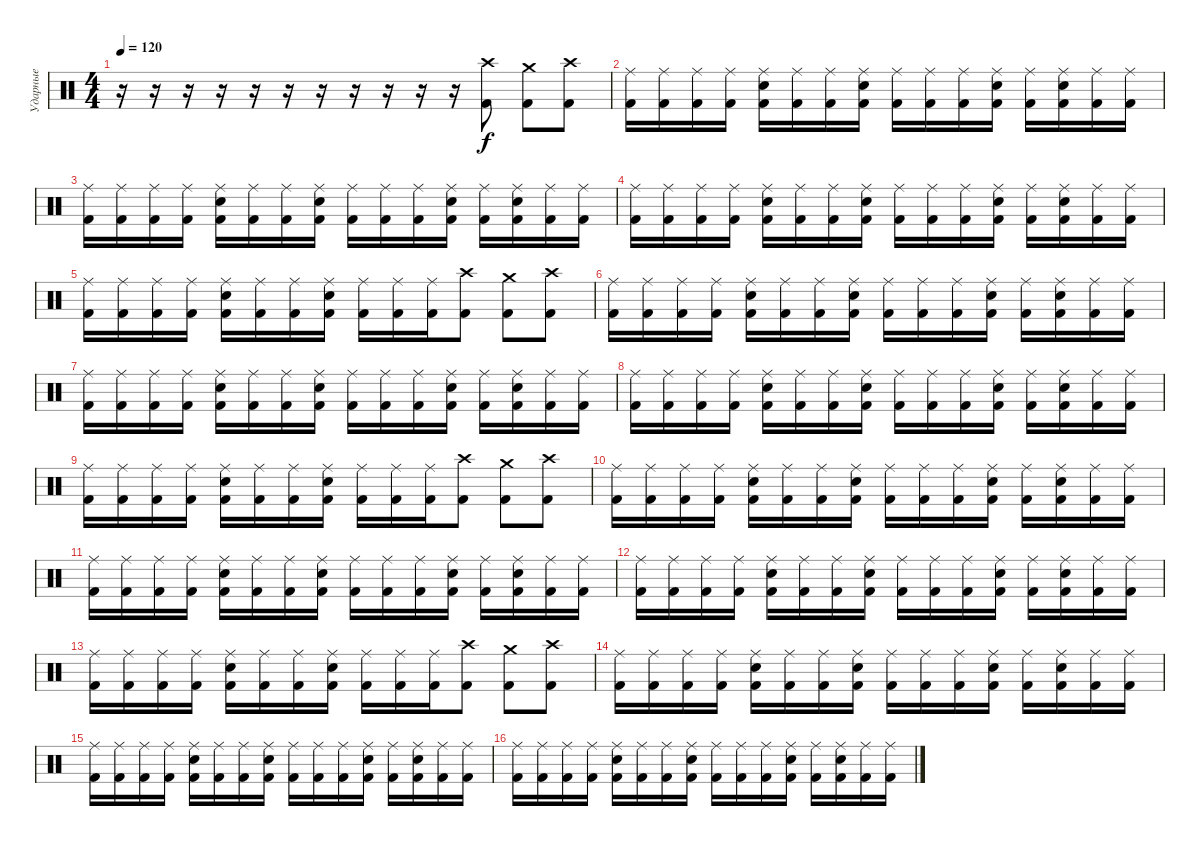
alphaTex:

\track ("Ударные" "Ударные") {instrument percussion}
\staff {score}
\articulation defaults
\ts (4 4)
\tempo 120
\clef neutral
\ks c
r.16{dy f} r.16 r.16 r.16 r.16 r.16 r.16 r.16 r.16 r.16 r.16 ("Kick (hit) 2" "Crash high (hit)").8 ("Kick (hit) 2" "Crash medium (hit)").8 ("Kick (hit) 2" "Crash high (hit)").8 |
("Kick (hit) 2" "Ride (middle)").16 ("Kick (hit) 2" "Ride (middle)").16 ("Kick (hit) 2" "Ride (middle)").16 ("Kick (hit) 2" "Ride (middle)").16 ("Kick (hit) 2" "Electric Snare (hit)" "Ride (middle)").16 ("Kick (hit) 2" "Ride (middle)").16 ("Kick (hit) 2" "Ride (middle)").16 ("Kick (hit) 2" "Electric Snare (hit)" "Ride (middle)").16 ("Kick (hit) 2" "Ride (middle)").16 ("Kick (hit) 2" "Ride (middle)").16 ("Kick (hit) 2" "Ride (middle)").16 ("Kick (hit) 2" "Electric Snare (hit)" "Ride (middle)").16 ("Kick (hit) 2" "Ride (middle)").16 ("Kick (hit) 2" "Electric Snare (hit)" "Ride (middle)").16 ("Kick (hit) 2" "Ride (middle)").16 ("Kick (hit) 2" "Ride (middle)").16 |
("Kick (hit) 2" "Ride (middle)").16 ("Kick (hit) 2" "Ride (middle)").16 ("Kick (hit) 2" "Ride (middle)").16 ("Kick (hit) 2" "Ride (middle)").16 ("Kick (hit) 2" "Electric Snare (hit)" "Ride (middle)").16 ("Kick (hit) 2" "Ride (middle)").16 ("Kick (hit) 2" "Ride (middle)").16 ("Kick (hit) 2" "Electric Snare (hit)" "Ride (middle)").16 ("Kick (hit) 2" "Ride (middle)").16 ("Kick (hit) 2" "Ride (middle)").16 ("Kick (hit) 2" "Ride (middle)").16 ("Kick (hit) 2" "Electric Snare (hit)" "Ride (middle)").16 ("Kick (hit) 2" "Ride (middle)").16 ("Kick (hit) 2" "Electric Snare (hit)" "Ride (middle)").16 ("Kick (hit) 2" "Ride (middle)").16 ("Kick (hit) 2" "Ride (middle)").16 |
("Kick (hit) 2" "Ride (middle)").16 ("Kick (hit) 2" "Ride (middle)").16 ("Kick (hit) 2" "Ride (middle)").16 ("Kick (hit) 2" "Ride (middle)").16 ("Kick (hit) 2" "Electric Snare (hit)" "Ride (middle)").16 ("Kick (hit) 2" "Ride (middle)").16 ("Kick (hit) 2" "Ride (middle)").16 ("Kick (hit) 2" "Electric Snare (hit)" "Ride (middle)").16 ("Kick (hit) 2" "Ride (middle)").16 ("Kick (hit) 2" "Ride (middle)").16 ("Kick (hit) 2" "Ride (middle)").16 ("Kick (hit) 2" "Electric Snare (hit)" "Ride (middle)").16 ("Kick (hit) 2" "Ride (middle)").16 ("Kick (hit) 2" "Electric Snare (hit)" "Ride (middle)").16 ("Kick (hit) 2" "Ride (middle)").16 ("Kick (hit) 2" "Ride (middle)").16 |
("Kick (hit) 2" "Ride (middle)").16 ("Kick (hit) 2" "Ride (middle)").16 ("Kick (hit) 2" "Ride (middle)").16 ("Kick (hit) 2" "Ride (middle)").16 ("Kick (hit) 2" "Electric Snare (hit)" "Ride (middle)").16 ("Kick (hit) 2" "Ride (middle)").16 ("Kick (hit) 2" "Ride (middle)").16 ("Kick (hit) 2" "Electric Snare (hit)" "Ride (middle)").16 ("Kick (hit) 2" "Ride (middle)").16 ("Kick (hit) 2" "Ride (middle)").16 ("Kick (hit) 2" "Ride (middle)").16 ("Kick (hit) 2" "Crash high (hit)").8 ("Kick (hit) 2" "Crash medium (hit)").8 ("Kick (hit) 2" "Crash high (hit)").8 |
("Kick (hit) 2" "Ride (middle)").16 ("Kick (hit) 2" "Ride (middle)").16 ("Kick (hit) 2" "Ride (middle)").16 ("Kick (hit) 2" "Ride (middle)").16 ("Kick (hit) 2" "Electric Snare (hit)" "Ride (middle)").16 ("Kick (hit) 2" "Ride (middle)").16 ("Kick (hit) 2" "Ride (middle)").16 ("Kick (hit) 2" "Electric Snare (hit)" "Ride (middle)").16 ("Kick (hit) 2" "Ride (middle)").16 ("Kick (hit) 2" "Ride (middle)").16 ("Kick (hit) 2" "Ride (middle)").16 ("Kick (hit) 2" "Electric Snare (hit)" "Ride (middle)").16 ("Kick (hit) 2" "Ride (middle)").16 ("Kick (hit) 2" "Electric Snare (hit)" "Ride (middle)").16 ("Kick (hit) 2" "Ride (middle)").16 ("Kick (hit) 2" "Ride (middle)").16 |
("Kick (hit) 2" "Ride (middle)").16 ("Kick (hit) 2" "Ride (middle)").16 ("Kick (hit) 2" "Ride (middle)").16 ("Kick (hit) 2" "Ride (middle)").16 ("Kick (hit) 2" "Electric Snare (hit)" "Ride (middle)").16 ("Kick (hit) 2" "Ride (middle)").16 ("Kick (hit) 2" "Ride (middle)").16 ("Kick (hit) 2" "Electric Snare (hit)" "Ride (middle)").16 ("Kick (hit) 2" "Ride (middle)").16 ("Kick (hit) 2" "Ride (middle)").16 ("Kick (hit) 2" "Ride (middle)").16 ("Kick (hit) 2" "Electric Snare (hit)" "Ride (middle)").16 ("Kick (hit) 2" "Ride (middle)").16 ("Kick (hit) 2" "Electric Snare (hit)" "Ride (middle)").16 ("Kick (hit) 2" "Ride (middle)").16 ("Kick (hit) 2" "Ride (middle)").16 |
("Kick (hit) 2" "Ride (middle)").16 ("Kick (hit) 2" "Ride (middle)").16 ("Kick (hit) 2" "Ride (middle)").16 ("Kick (hit) 2" "Ride (middle)").16 ("Kick (hit) 2" "Electric Snare (hit)" "Ride (middle)").16 ("Kick (hit) 2" "Ride (middle)").16 ("Kick (hit) 2" "Ride (middle)").16 ("Kick (hit) 2" "Electric Snare (hit)" "Ride (middle)").16 ("Kick (hit) 2" "Ride (middle)").16 ("Kick (hit) 2" "Ride (middle)").16 ("Kick (hit) 2" "Ride (middle)").16 ("Kick (hit) 2" "Electric Snare (hit)" "Ride (middle)").16 ("Kick (hit) 2" "Ride (middle)").16 ("Kick (hit) 2" "Electric Snare (hit)" "Ride (middle)").16 ("Kick (hit) 2" "Ride (middle)").16 ("Kick (hit) 2" "Ride (middle)").16 |
("Kick (hit) 2" "Ride (middle)").16 ("Kick (hit) 2" "Ride (middle)").16 ("Kick (hit) 2" "Ride (middle)").16 ("Kick (hit) 2" "Ride (middle)").16 ("Kick (hit) 2" "Electric Snare (hit)" "Ride (middle)").16 ("Kick (hit) 2" "Ride (middle)").16 ("Kick (hit) 2" "Ride (middle)").16 ("Kick (hit) 2" "Electric Snare (hit)" "Ride (middle)").16 ("Kick (hit) 2" "Ride (middle)").16 ("Kick (hit) 2" "Ride (middle)").16 ("Kick (hit) 2" "Ride (middle)").16 ("Kick (hit) 2" "Crash high (hit)").8 ("Kick (hit) 2" "Crash medium (hit)").8 ("Kick (hit) 2" "Crash high (hit)").8 |
("Kick (hit) 2" "Ride (middle)").16 ("Kick (hit) 2" "Ride (middle)").16 ("Kick (hit) 2" "Ride (middle)").16 ("Kick (hit) 2" "Ride (middle)").16 ("Kick (hit) 2" "Electric Snare (hit)" "Ride (middle)").16 ("Kick (hit) 2" "Ride (middle)").16 ("Kick (hit) 2" "Ride (middle)").16 ("Kick (hit) 2" "Electric Snare (hit)" "Ride (middle)").16 ("Kick (hit) 2" "Ride (middle)").16 ("Kick (hit) 2" "Ride (middle)").16 ("Kick (hit) 2" "Ride (middle)").16 ("Kick (hit) 2" "Electric Snare (hit)" "Ride (middle)").16 ("Kick (hit) 2" "Ride (middle)").16 ("Kick (hit) 2" "Electric Snare (hit)" "Ride (middle)").16 ("Kick (hit) 2" "Ride (middle)").16 ("Kick (hit) 2" "Ride (middle)").16 |
("Kick (hit) 2" "Ride (middle)").16 ("Kick (hit) 2" "Ride (middle)").16 ("Kick (hit) 2" "Ride (middle)").16 ("Kick (hit) 2" "Ride (middle)").16 ("Kick (hit) 2" "Electric Snare (hit)" "Ride (middle)").16 ("Kick (hit) 2" "Ride (middle)").16 ("Kick (hit) 2" "Ride (middle)").16 ("Kick (hit) 2" "Electric Snare (hit)" "Ride (middle)").16 ("Kick (hit) 2" "Ride (middle)").16 ("Kick (hit) 2" "Ride (middle)").16 ("Kick (hit) 2" "Ride (middle)").16 ("Kick (hit) 2" "Electric Snare (hit)" "Ride (middle)").16 ("Kick (hit) 2" "Ride (middle)").16 ("Kick (hit) 2" "Electric Snare (hit)" "Ride (middle)").16 ("Kick (hit) 2" "Ride (middle)").16 ("Kick (hit) 2" "Ride (middle)").16 |
("Kick (hit) 2" "Ride (middle)").16 ("Kick (hit) 2" "Ride (middle)").16 ("Kick (hit) 2" "Ride (middle)").16 ("Kick (hit) 2" "Ride (middle)").16 ("Kick (hit) 2" "Electric Snare (hit)" "Ride (middle)").16 ("Kick (hit) 2" "Ride (middle)").16 ("Kick (hit) 2" "Ride (middle)").16 ("Kick (hit) 2" "Electric Snare (hit)" "Ride (middle)").16 ("Kick (hit) 2" "Ride (middle)").16 ("Kick (hit) 2" "Ride (middle)").16 ("Kick (hit) 2" "Ride (middle)").16 ("Kick (hit) 2" "Electric Snare (hit)" "Ride (middle)").16 ("Kick (hit) 2" "Ride (middle)").16 ("Kick (hit) 2" "Electric Snare (hit)" "Ride (middle)").16 ("Kick (hit) 2" "Ride (middle)").16 ("Kick (hit) 2" "Ride (middle)").16 |
("Kick (hit) 2" "Ride (middle)").16 ("Kick (hit) 2" "Ride (middle)").16 ("Kick (hit) 2" "Ride (middle)").16 ("Kick (hit) 2" "Ride (middle)").16 ("Kick (hit) 2" "Electric Snare (hit)" "Ride (middle)").16 ("Kick (hit) 2" "Ride (middle)").16 ("Kick (hit) 2" "Ride (middle)").16 ("Kick (hit) 2" "Electric Snare (hit)" "Ride (middle)").16 ("Kick (hit) 2" "Ride (middle)").16 ("Kick (hit) 2" "Ride (middle)").16 ("Kick (hit) 2" "Ride (middle)").16 ("Kick (hit) 2" "Crash high (hit)").8 ("Kick (hit) 2" "Crash medium (hit)").8 ("Kick (hit) 2" "Crash high (hit)").8 |
("Kick (hit) 2" "Ride (middle)").16 ("Kick (hit) 2" "Ride (middle)").16 ("Kick (hit) 2" "Ride (middle)").16 ("Kick (hit) 2" "Ride (middle)").16 ("Kick (hit) 2" "Electric Snare (hit)" "Ride (middle)").16 ("Kick (hit) 2" "Ride (middle)").16 ("Kick (hit) 2" "Ride (middle)").16 ("Kick (hit) 2" "Electric Snare (hit)" "Ride (middle)").16 ("Kick (hit) 2" "Ride (middle)").16 ("Kick (hit) 2" "Ride (middle)").16 ("Kick (hit) 2" "Ride (middle)").16 ("Kick (hit) 2" "Electric Snare (hit)" "Ride (middle)").16 ("Kick (hit) 2" "Ride (middle)").16 ("Kick (hit) 2" "Electric Snare (hit)" "Ride (middle)").16 ("Kick (hit) 2" "Ride (middle)").16 ("Kick (hit) 2" "Ride (middle)").16 |
("Kick (hit) 2" "Ride (middle)").16 ("Kick (hit) 2" "Ride (middle)").16 ("Kick (hit) 2" "Ride (middle)").16 ("Kick (hit) 2" "Ride (middle)").16 ("Kick (hit) 2" "Electric Snare (hit)" "Ride (middle)").16 ("Kick (hit) 2" "Ride (middle)").16 ("Kick (hit) 2" "Ride (middle)").16 ("Kick (hit) 2" "Electric Snare (hit)" "Ride (middle)").16 ("Kick (hit) 2" "Ride (middle)").16 ("Kick (hit) 2" "Ride (middle)").16 ("Kick (hit) 2" "Ride (middle)").16 ("Kick (hit) 2" "Electric Snare (hit)" "Ride (middle)").16 ("Kick (hit) 2" "Ride (middle)").16 ("Kick (hit) 2" "Electric Snare (hit)" "Ride (middle)").16 ("Kick (hit) 2" "Ride (middle)").16 ("Kick (hit) 2" "Ride (middle)").16 |
("Kick (hit) 2" "Ride (middle)").16 ("Kick (hit) 2" "Ride (middle)").16 ("Kick (hit) 2" "Ride (middle)").16 ("Kick (hit) 2" "Ride (middle)").16 ("Kick (hit) 2" "Electric Snare (hit)" "Ride (middle)").16 ("Kick (hit) 2" "Ride (middle)").16 ("Kick (hit) 2" "Ride (middle)").16 ("Kick (hit) 2" "Electric Snare (hit)" "Ride (middle)").16 ("Kick (hit) 2" "Ride (middle)").16 ("Kick (hit) 2" "Ride (middle)").16 ("Kick (hit) 2" "Ride (middle)").16 ("Kick (hit) 2" "Electric Snare (hit)" "Ride (middle)").16 ("Kick (hit) 2" "Ride (middle)").16 ("Kick (hit) 2" "Electric Snare (hit)" "Ride (middle)").16 ("Kick (hit) 2" "Ride (middle)").16 ("Kick (hit) 2" "Ride (middle)").16
